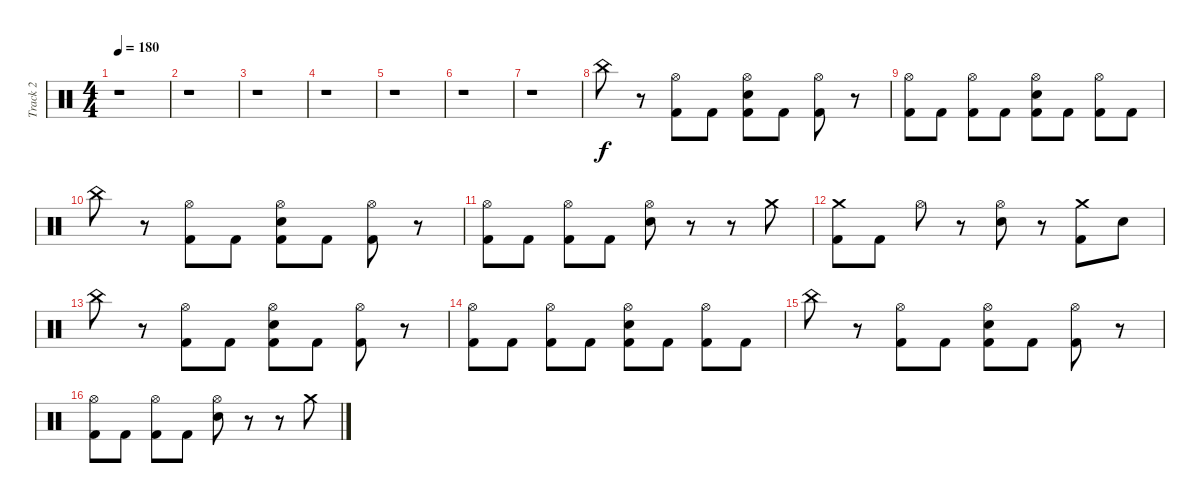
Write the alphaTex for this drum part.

\track ("Track 2" "Track 2") {instrument percussion}
\staff {score}
\articulation defaults
\ts (4 4)
\tempo 180
\clef neutral
\ks c
r.1{dy f} |
r.1 |
r.1 |
r.1 |
r.1 |
r.1 |
r.1 |
"China (hit)".8 r.8 ("Hi-Hat (open)" "Kick (hit) 2").8 "Kick (hit) 2".8 ("Hi-Hat (open)" "Electric Snare (hit)" "Kick (hit) 2").8 "Kick (hit) 2".8 ("Hi-Hat (open)" "Kick (hit) 2").8 r.8 |
("Hi-Hat (open)" "Kick (hit) 2").8 "Kick (hit) 2".8 ("Hi-Hat (open)" "Kick (hit) 2").8 "Kick (hit) 2".8 ("Hi-Hat (open)" "Electric Snare (hit)" "Kick (hit) 2").8 "Kick (hit) 2".8 ("Hi-Hat (open)" "Kick (hit) 2").8 "Kick (hit) 2".8 |
"China (hit)".8 r.8 ("Hi-Hat (open)" "Kick (hit) 2").8 "Kick (hit) 2".8 ("Hi-Hat (open)" "Electric Snare (hit)" "Kick (hit) 2").8 "Kick (hit) 2".8 ("Hi-Hat (open)" "Kick (hit) 2").8 r.8 |
("Hi-Hat (open)" "Kick (hit) 2").8 "Kick (hit) 2".8 ("Hi-Hat (open)" "Kick (hit) 2").8 "Kick (hit) 2".8 ("Hi-Hat (open)" "Electric Snare (hit)").8 r.8 r.8 "Crash medium (hit)".8 |
("Crash medium (hit)" "Kick (hit) 2").8 "Kick (hit) 2".8 "Hi-Hat (open)".8 r.8 ("Hi-Hat (open)" "Electric Snare (hit)").8 r.8 ("Crash medium (hit)" "Kick (hit) 2").8 "Electric Snare (hit)".8 |
"China (hit)".8 r.8 ("Hi-Hat (open)" "Kick (hit) 2").8 "Kick (hit) 2".8 ("Hi-Hat (open)" "Electric Snare (hit)" "Kick (hit) 2").8 "Kick (hit) 2".8 ("Hi-Hat (open)" "Kick (hit) 2").8 r.8 |
("Hi-Hat (open)" "Kick (hit) 2").8 "Kick (hit) 2".8 ("Hi-Hat (open)" "Kick (hit) 2").8 "Kick (hit) 2".8 ("Hi-Hat (open)" "Electric Snare (hit)" "Kick (hit) 2").8 "Kick (hit) 2".8 ("Hi-Hat (open)" "Kick (hit) 2").8 "Kick (hit) 2".8 |
"China (hit)".8 r.8 ("Hi-Hat (open)" "Kick (hit) 2").8 "Kick (hit) 2".8 ("Hi-Hat (open)" "Electric Snare (hit)" "Kick (hit) 2").8 "Kick (hit) 2".8 ("Hi-Hat (open)" "Kick (hit) 2").8 r.8 |
("Hi-Hat (open)" "Kick (hit) 2").8 "Kick (hit) 2".8 ("Hi-Hat (open)" "Kick (hit) 2").8 "Kick (hit) 2".8 ("Hi-Hat (open)" "Electric Snare (hit)").8 r.8 r.8 "Crash medium (hit)".8
